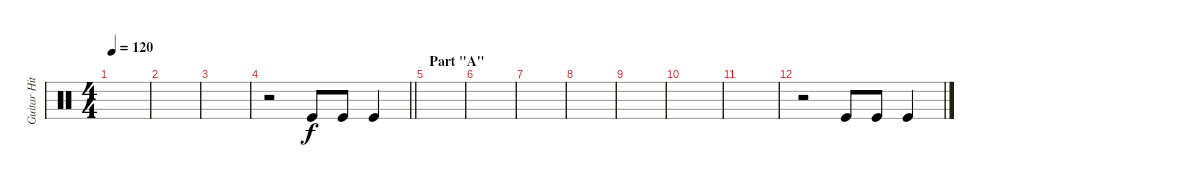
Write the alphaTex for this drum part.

\track ("Guitar Hit" "Guitar Hit") {instrument percussion}
\staff {score}
\articulation defaults
\ts (4 4)
\tempo 120
\clef neutral
\ks c
|
|
|
\barLineRight lightlight
r.2 "Kick (hit)".8 "Kick (hit)".8 "Kick (hit)".4 |
\section ("" "Part \"A\"")
|
|
|
|
|
|
|
r.2 "Kick (hit)".8 "Kick (hit)".8 "Kick (hit)".4
